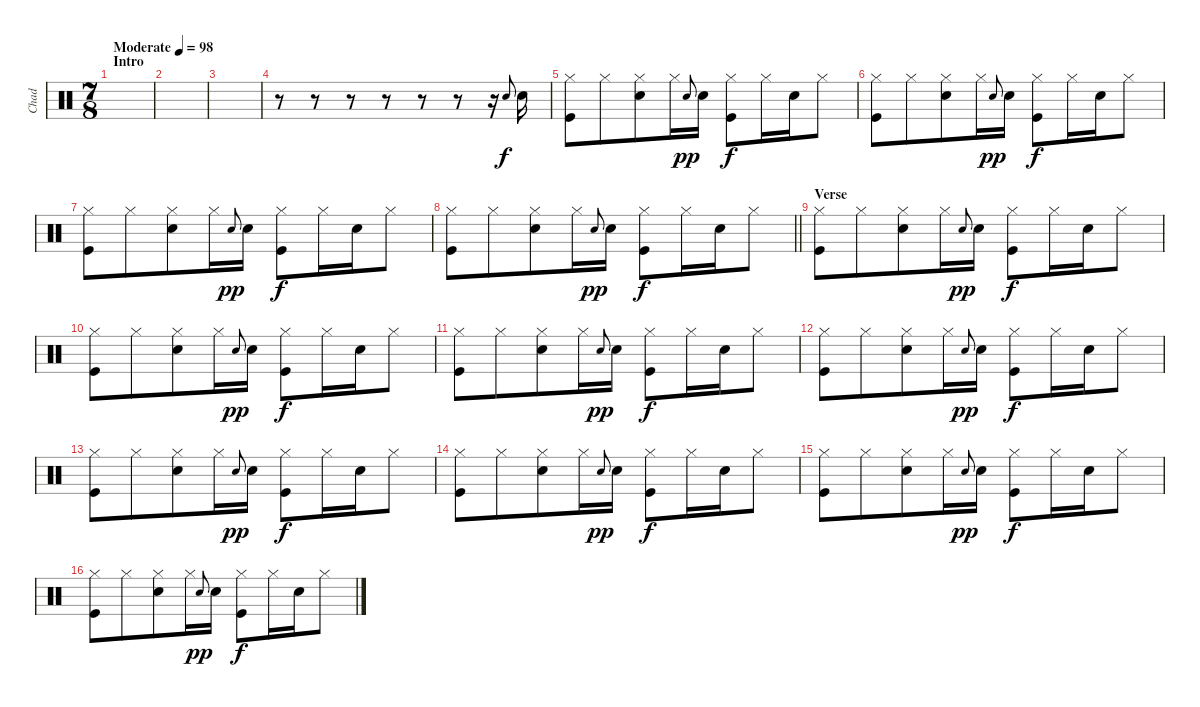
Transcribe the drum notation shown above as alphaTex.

\track ("Chad" "Chad") {instrument percussion}
\staff {score}
\articulation defaults
\ts (7 8)
\section ("" "Intro")
\tempo (98 "Moderate")
\clef neutral
\ks c
|
|
|
r.8 r.8 r.8 r.8 r.8 r.8 r.16 "Snare (hit) 2".8{gr onbeat} "Snare (hit) 2".16 |
("Hi-Hat (closed)" "Kick (hit)").8 "Hi-Hat (closed)".8 ("Hi-Hat (closed)" "Snare (hit) 2").8 "Hi-Hat (closed)".16 "Snare (hit) 2".8{gr onbeat dy pp} "Snare (hit) 2".16 ("Hi-Hat (closed)" "Kick (hit)").8{dy f} "Hi-Hat (closed)".16 "Snare (hit) 2".16 "Hi-Hat (closed)".8 |
("Hi-Hat (closed)" "Kick (hit)").8 "Hi-Hat (closed)".8 ("Hi-Hat (closed)" "Snare (hit) 2").8 "Hi-Hat (closed)".16 "Snare (hit) 2".8{gr onbeat dy pp} "Snare (hit) 2".16 ("Hi-Hat (closed)" "Kick (hit)").8{dy f} "Hi-Hat (closed)".16 "Snare (hit) 2".16 "Hi-Hat (closed)".8 |
("Hi-Hat (closed)" "Kick (hit)").8 "Hi-Hat (closed)".8 ("Hi-Hat (closed)" "Snare (hit) 2").8 "Hi-Hat (closed)".16 "Snare (hit) 2".8{gr onbeat dy pp} "Snare (hit) 2".16 ("Hi-Hat (closed)" "Kick (hit)").8{dy f} "Hi-Hat (closed)".16 "Snare (hit) 2".16 "Hi-Hat (closed)".8 |
\barLineRight lightlight
("Hi-Hat (closed)" "Kick (hit)").8 "Hi-Hat (closed)".8 ("Hi-Hat (closed)" "Snare (hit) 2").8 "Hi-Hat (closed)".16 "Snare (hit) 2".8{gr onbeat dy pp} "Snare (hit) 2".16 ("Hi-Hat (closed)" "Kick (hit)").8{dy f} "Hi-Hat (closed)".16 "Snare (hit) 2".16 "Hi-Hat (closed)".8 |
\section ("" "Verse")
("Hi-Hat (closed)" "Kick (hit)").8 "Hi-Hat (closed)".8 ("Hi-Hat (closed)" "Snare (hit) 2").8 "Hi-Hat (closed)".16 "Snare (hit) 2".8{gr onbeat dy pp} "Snare (hit) 2".16 ("Hi-Hat (closed)" "Kick (hit)").8{dy f} "Hi-Hat (closed)".16 "Snare (hit) 2".16 "Hi-Hat (closed)".8 |
("Hi-Hat (closed)" "Kick (hit)").8 "Hi-Hat (closed)".8 ("Hi-Hat (closed)" "Snare (hit) 2").8 "Hi-Hat (closed)".16 "Snare (hit) 2".8{gr onbeat dy pp} "Snare (hit) 2".16 ("Hi-Hat (closed)" "Kick (hit)").8{dy f} "Hi-Hat (closed)".16 "Snare (hit) 2".16 "Hi-Hat (closed)".8 |
("Hi-Hat (closed)" "Kick (hit)").8 "Hi-Hat (closed)".8 ("Hi-Hat (closed)" "Snare (hit) 2").8 "Hi-Hat (closed)".16 "Snare (hit) 2".8{gr onbeat dy pp} "Snare (hit) 2".16 ("Hi-Hat (closed)" "Kick (hit)").8{dy f} "Hi-Hat (closed)".16 "Snare (hit) 2".16 "Hi-Hat (closed)".8 |
("Hi-Hat (closed)" "Kick (hit)").8 "Hi-Hat (closed)".8 ("Hi-Hat (closed)" "Snare (hit) 2").8 "Hi-Hat (closed)".16 "Snare (hit) 2".8{gr onbeat dy pp} "Snare (hit) 2".16 ("Hi-Hat (closed)" "Kick (hit)").8{dy f} "Hi-Hat (closed)".16 "Snare (hit) 2".16 "Hi-Hat (closed)".8 |
("Hi-Hat (closed)" "Kick (hit)").8 "Hi-Hat (closed)".8 ("Hi-Hat (closed)" "Snare (hit) 2").8 "Hi-Hat (closed)".16 "Snare (hit) 2".8{gr onbeat dy pp} "Snare (hit) 2".16 ("Hi-Hat (closed)" "Kick (hit)").8{dy f} "Hi-Hat (closed)".16 "Snare (hit) 2".16 "Hi-Hat (closed)".8 |
("Hi-Hat (closed)" "Kick (hit)").8 "Hi-Hat (closed)".8 ("Hi-Hat (closed)" "Snare (hit) 2").8 "Hi-Hat (closed)".16 "Snare (hit) 2".8{gr onbeat dy pp} "Snare (hit) 2".16 ("Hi-Hat (closed)" "Kick (hit)").8{dy f} "Hi-Hat (closed)".16 "Snare (hit) 2".16 "Hi-Hat (closed)".8 |
("Hi-Hat (closed)" "Kick (hit)").8 "Hi-Hat (closed)".8 ("Hi-Hat (closed)" "Snare (hit) 2").8 "Hi-Hat (closed)".16 "Snare (hit) 2".8{gr onbeat dy pp} "Snare (hit) 2".16 ("Hi-Hat (closed)" "Kick (hit)").8{dy f} "Hi-Hat (closed)".16 "Snare (hit) 2".16 "Hi-Hat (closed)".8 |
("Hi-Hat (closed)" "Kick (hit)").8 "Hi-Hat (closed)".8 ("Hi-Hat (closed)" "Snare (hit) 2").8 "Hi-Hat (closed)".16 "Snare (hit) 2".8{gr onbeat dy pp} "Snare (hit) 2".16 ("Hi-Hat (closed)" "Kick (hit)").8{dy f} "Hi-Hat (closed)".16 "Snare (hit) 2".16 "Hi-Hat (closed)".8
